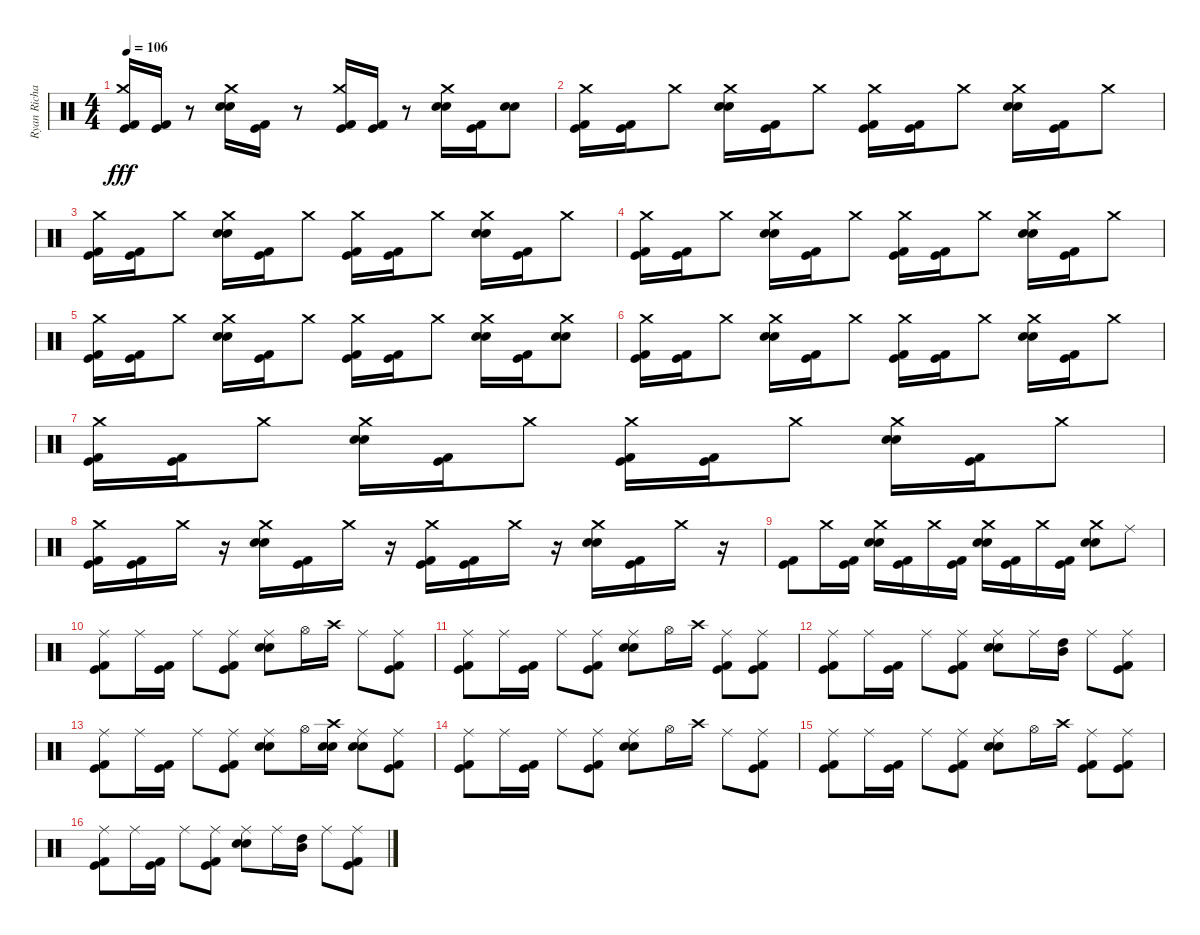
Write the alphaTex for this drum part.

\track ("Ryan Richards" "Ryan Richa") {instrument percussion}
\staff {score}
\articulation defaults
\ts (4 4)
\tempo 106
\clef neutral
\ks c
("Kick (hit)" "Crash medium (hit)" "Kick (hit) 2").16{dy fff} ("Kick (hit)" "Kick (hit) 2").16 r.8 ("Crash medium (hit)" "Snare (hit) 2" "Electric Snare (hit)").16 ("Kick (hit)" "Kick (hit) 2").16 r.8 ("Kick (hit)" "Crash medium (hit)" "Kick (hit) 2").16 ("Kick (hit)" "Kick (hit) 2").16 r.8 ("Crash medium (hit)" "Snare (hit) 2" "Electric Snare (hit)").16 ("Kick (hit)" "Kick (hit) 2").16 ("Snare (hit) 2" "Electric Snare (hit)").8 |
("Kick (hit)" "Crash medium (hit)" "Kick (hit) 2").16 ("Kick (hit)" "Kick (hit) 2").16 "Crash medium (hit)".8 ("Crash medium (hit)" "Snare (hit) 2" "Electric Snare (hit)").16 ("Kick (hit)" "Kick (hit) 2").16 "Crash medium (hit)".8 ("Kick (hit)" "Crash medium (hit)" "Kick (hit) 2").16 ("Kick (hit)" "Kick (hit) 2").16 "Crash medium (hit)".8 ("Crash medium (hit)" "Snare (hit) 2" "Electric Snare (hit)").16 ("Kick (hit)" "Kick (hit) 2").16 "Crash medium (hit)".8 |
("Kick (hit)" "Crash medium (hit)" "Kick (hit) 2").16 ("Kick (hit)" "Kick (hit) 2").16 "Crash medium (hit)".8 ("Crash medium (hit)" "Snare (hit) 2" "Electric Snare (hit)").16 ("Kick (hit)" "Kick (hit) 2").16 "Crash medium (hit)".8 ("Kick (hit)" "Crash medium (hit)" "Kick (hit) 2").16 ("Kick (hit)" "Kick (hit) 2").16 "Crash medium (hit)".8 ("Crash medium (hit)" "Snare (hit) 2" "Electric Snare (hit)").16 ("Kick (hit)" "Kick (hit) 2").16 "Crash medium (hit)".8 |
("Kick (hit)" "Crash medium (hit)" "Kick (hit) 2").16 ("Kick (hit)" "Kick (hit) 2").16 "Crash medium (hit)".8 ("Crash medium (hit)" "Snare (hit) 2" "Electric Snare (hit)").16 ("Kick (hit)" "Kick (hit) 2").16 "Crash medium (hit)".8 ("Kick (hit)" "Crash medium (hit)" "Kick (hit) 2").16 ("Kick (hit)" "Kick (hit) 2").16 "Crash medium (hit)".8 ("Crash medium (hit)" "Snare (hit) 2" "Electric Snare (hit)").16 ("Kick (hit)" "Kick (hit) 2").16 "Crash medium (hit)".8 |
("Kick (hit)" "Crash medium (hit)" "Kick (hit) 2").16 ("Kick (hit)" "Kick (hit) 2").16 "Crash medium (hit)".8 ("Crash medium (hit)" "Snare (hit) 2" "Electric Snare (hit)").16 ("Kick (hit)" "Kick (hit) 2").16 "Crash medium (hit)".8 ("Kick (hit)" "Crash medium (hit)" "Kick (hit) 2").16 ("Kick (hit)" "Kick (hit) 2").16 "Crash medium (hit)".8 ("Crash medium (hit)" "Snare (hit) 2" "Electric Snare (hit)").16 ("Kick (hit)" "Kick (hit) 2").16 ("Crash medium (hit)" "Snare (hit) 2" "Electric Snare (hit)").8 |
("Kick (hit)" "Crash medium (hit)" "Kick (hit) 2").16 ("Kick (hit)" "Kick (hit) 2").16 "Crash medium (hit)".8 ("Crash medium (hit)" "Snare (hit) 2" "Electric Snare (hit)").16 ("Kick (hit)" "Kick (hit) 2").16 "Crash medium (hit)".8 ("Kick (hit)" "Crash medium (hit)" "Kick (hit) 2").16 ("Kick (hit)" "Kick (hit) 2").16 "Crash medium (hit)".8 ("Crash medium (hit)" "Snare (hit) 2" "Electric Snare (hit)").16 ("Kick (hit)" "Kick (hit) 2").16 "Crash medium (hit)".8 |
("Kick (hit)" "Crash medium (hit)" "Kick (hit) 2").16 ("Kick (hit)" "Kick (hit) 2").16 "Crash medium (hit)".8 ("Crash medium (hit)" "Snare (hit) 2" "Electric Snare (hit)").16 ("Kick (hit)" "Kick (hit) 2").16 "Crash medium (hit)".8 ("Kick (hit)" "Crash medium (hit)" "Kick (hit) 2").16 ("Kick (hit)" "Kick (hit) 2").16 "Crash medium (hit)".8 ("Crash medium (hit)" "Snare (hit) 2" "Electric Snare (hit)").16 ("Kick (hit)" "Kick (hit) 2").16 "Crash medium (hit)".8 |
("Kick (hit)" "Crash medium (hit)" "Kick (hit) 2").16 ("Kick (hit)" "Kick (hit) 2").16 "Crash medium (hit)".16 r.16 ("Crash medium (hit)" "Snare (hit) 2" "Electric Snare (hit)").16 ("Kick (hit)" "Kick (hit) 2").16 "Crash medium (hit)".16 r.16 ("Kick (hit)" "Crash medium (hit)" "Kick (hit) 2").16 ("Kick (hit)" "Kick (hit) 2").16 "Crash medium (hit)".16 r.16 ("Crash medium (hit)" "Snare (hit) 2" "Electric Snare (hit)").16 ("Kick (hit)" "Kick (hit) 2").16 "Crash medium (hit)".16 r.16 |
("Kick (hit)" "Kick (hit) 2").8 "Crash medium (hit)".16 ("Kick (hit)" "Kick (hit) 2").16 ("Crash medium (hit)" "Snare (hit) 2" "Electric Snare (hit)").16 ("Kick (hit)" "Kick (hit) 2").16 "Crash medium (hit)".16 ("Kick (hit)" "Kick (hit) 2").16 ("Crash medium (hit)" "Snare (hit) 2" "Electric Snare (hit)").16 ("Kick (hit)" "Kick (hit) 2").16 "Crash medium (hit)".16 ("Kick (hit)" "Kick (hit) 2").16 ("Crash medium (hit)" "Snare (hit) 2" "Electric Snare (hit)").8 "Ride (middle)".8 |
("Kick (hit)" "Ride (middle)" "Kick (hit) 2").8 "Ride (middle)".16 ("Kick (hit)" "Kick (hit) 2").16 "Ride (middle)".8 ("Kick (hit)" "Ride (middle)" "Kick (hit) 2").8 ("Ride (middle)" "Snare (hit) 2" "Electric Snare (hit)").8 "Hi-Hat (open)".16 "Crash high (hit)".16 "Ride (middle)".8 ("Kick (hit)" "Ride (middle)" "Kick (hit) 2").8 |
("Kick (hit)" "Ride (middle)" "Kick (hit) 2").8 "Ride (middle)".16 ("Kick (hit)" "Kick (hit) 2").16 "Ride (middle)".8 ("Kick (hit)" "Ride (middle)" "Kick (hit) 2").8 ("Ride (middle)" "Snare (hit) 2" "Electric Snare (hit)").8 "Hi-Hat (open)".16 "Crash high (hit)".16 ("Kick (hit)" "Ride (middle)" "Kick (hit) 2").8 ("Kick (hit)" "Ride (middle)" "Kick (hit) 2").8 |
("Kick (hit)" "Ride (middle)" "Kick (hit) 2").8 "Ride (middle)".16 ("Kick (hit)" "Kick (hit) 2").16 "Ride (middle)".8 ("Kick (hit)" "Ride (middle)" "Kick (hit) 2").8 ("Ride (middle)" "Snare (hit) 2" "Electric Snare (hit)").8 "Ride (middle)".16 ("High Tom (hit)" "Mid Tom (hit)").16 "Ride (middle)".8 ("Kick (hit)" "Ride (middle)" "Kick (hit) 2").8 |
("Kick (hit)" "Ride (middle)" "Kick (hit) 2").8 "Ride (middle)".16 ("Kick (hit)" "Kick (hit) 2").16 "Ride (middle)".8 ("Kick (hit)" "Ride (middle)" "Kick (hit) 2").8 ("Ride (middle)" "Snare (hit) 2" "Electric Snare (hit)").8 "Hi-Hat (open)".16 ("Crash high (hit)" "Snare (hit) 2" "Electric Snare (hit)").16 ("Ride (middle)" "Snare (hit) 2" "Electric Snare (hit)").8 ("Kick (hit)" "Ride (middle)" "Kick (hit) 2").8 |
("Kick (hit)" "Ride (middle)" "Kick (hit) 2").8 "Ride (middle)".16 ("Kick (hit)" "Kick (hit) 2").16 "Ride (middle)".8 ("Kick (hit)" "Ride (middle)" "Kick (hit) 2").8 ("Ride (middle)" "Snare (hit) 2" "Electric Snare (hit)").8 "Hi-Hat (open)".16 "Crash high (hit)".16 "Ride (middle)".8 ("Kick (hit)" "Ride (middle)" "Kick (hit) 2").8 |
("Kick (hit)" "Ride (middle)" "Kick (hit) 2").8 "Ride (middle)".16 ("Kick (hit)" "Kick (hit) 2").16 "Ride (middle)".8 ("Kick (hit)" "Ride (middle)" "Kick (hit) 2").8 ("Ride (middle)" "Snare (hit) 2" "Electric Snare (hit)").8 "Hi-Hat (open)".16 "Crash high (hit)".16 ("Kick (hit)" "Ride (middle)" "Kick (hit) 2").8 ("Kick (hit)" "Ride (middle)" "Kick (hit) 2").8 |
("Kick (hit)" "Ride (middle)" "Kick (hit) 2").8 "Ride (middle)".16 ("Kick (hit)" "Kick (hit) 2").16 "Ride (middle)".8 ("Kick (hit)" "Ride (middle)" "Kick (hit) 2").8 ("Ride (middle)" "Snare (hit) 2" "Electric Snare (hit)").8 "Ride (middle)".16 ("High Tom (hit)" "Mid Tom (hit)").16 "Ride (middle)".8 ("Kick (hit)" "Ride (middle)" "Kick (hit) 2").8
